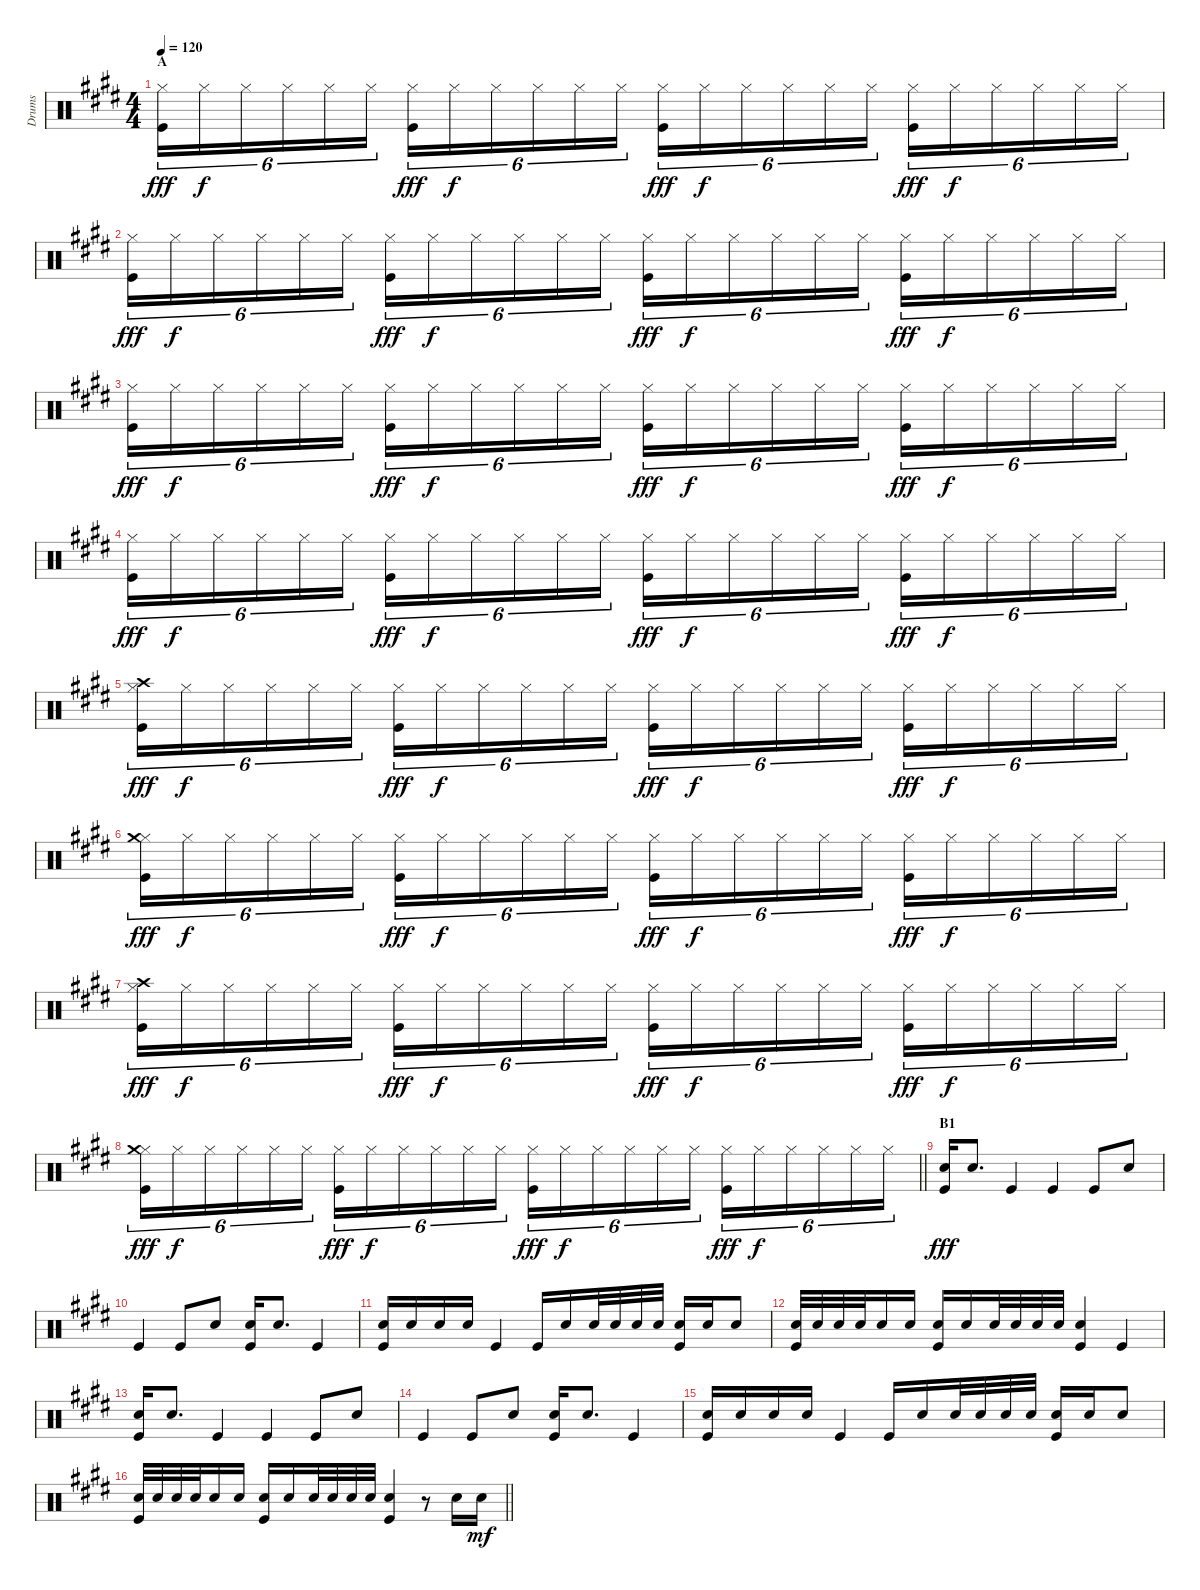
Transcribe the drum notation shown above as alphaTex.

\track ("Drums" "Drums") {instrument percussion}
\staff {score}
\articulation defaults
\ts (4 4)
\section ("" "A")
\tempo 120
\clef neutral
\ks e
("Hi-Hat (closed)" "Kick (hit)").16{tu (6 4) dy fff} "Hi-Hat (closed)".16{tu (6 4) dy f} "Hi-Hat (closed)".16{tu (6 4)} "Hi-Hat (closed)".16{tu (6 4)} "Hi-Hat (closed)".16{tu (6 4)} "Hi-Hat (closed)".16{tu (6 4)} ("Hi-Hat (closed)" "Kick (hit)").16{tu (6 4) dy fff} "Hi-Hat (closed)".16{tu (6 4) dy f} "Hi-Hat (closed)".16{tu (6 4)} "Hi-Hat (closed)".16{tu (6 4)} "Hi-Hat (closed)".16{tu (6 4)} "Hi-Hat (closed)".16{tu (6 4)} ("Hi-Hat (closed)" "Kick (hit)").16{tu (6 4) dy fff} "Hi-Hat (closed)".16{tu (6 4) dy f} "Hi-Hat (closed)".16{tu (6 4)} "Hi-Hat (closed)".16{tu (6 4)} "Hi-Hat (closed)".16{tu (6 4)} "Hi-Hat (closed)".16{tu (6 4)} ("Hi-Hat (closed)" "Kick (hit)").16{tu (6 4) dy fff} "Hi-Hat (closed)".16{tu (6 4) dy f} "Hi-Hat (closed)".16{tu (6 4)} "Hi-Hat (closed)".16{tu (6 4)} "Hi-Hat (closed)".16{tu (6 4)} "Hi-Hat (closed)".16{tu (6 4)} |
("Hi-Hat (closed)" "Kick (hit)").16{tu (6 4) dy fff} "Hi-Hat (closed)".16{tu (6 4) dy f} "Hi-Hat (closed)".16{tu (6 4)} "Hi-Hat (closed)".16{tu (6 4)} "Hi-Hat (closed)".16{tu (6 4)} "Hi-Hat (closed)".16{tu (6 4)} ("Hi-Hat (closed)" "Kick (hit)").16{tu (6 4) dy fff} "Hi-Hat (closed)".16{tu (6 4) dy f} "Hi-Hat (closed)".16{tu (6 4)} "Hi-Hat (closed)".16{tu (6 4)} "Hi-Hat (closed)".16{tu (6 4)} "Hi-Hat (closed)".16{tu (6 4)} ("Hi-Hat (closed)" "Kick (hit)").16{tu (6 4) dy fff} "Hi-Hat (closed)".16{tu (6 4) dy f} "Hi-Hat (closed)".16{tu (6 4)} "Hi-Hat (closed)".16{tu (6 4)} "Hi-Hat (closed)".16{tu (6 4)} "Hi-Hat (closed)".16{tu (6 4)} ("Hi-Hat (closed)" "Kick (hit)").16{tu (6 4) dy fff} "Hi-Hat (closed)".16{tu (6 4) dy f} "Hi-Hat (closed)".16{tu (6 4)} "Hi-Hat (closed)".16{tu (6 4)} "Hi-Hat (closed)".16{tu (6 4)} "Hi-Hat (closed)".16{tu (6 4)} |
("Hi-Hat (closed)" "Kick (hit)").16{tu (6 4) dy fff} "Hi-Hat (closed)".16{tu (6 4) dy f} "Hi-Hat (closed)".16{tu (6 4)} "Hi-Hat (closed)".16{tu (6 4)} "Hi-Hat (closed)".16{tu (6 4)} "Hi-Hat (closed)".16{tu (6 4)} ("Hi-Hat (closed)" "Kick (hit)").16{tu (6 4) dy fff} "Hi-Hat (closed)".16{tu (6 4) dy f} "Hi-Hat (closed)".16{tu (6 4)} "Hi-Hat (closed)".16{tu (6 4)} "Hi-Hat (closed)".16{tu (6 4)} "Hi-Hat (closed)".16{tu (6 4)} ("Hi-Hat (closed)" "Kick (hit)").16{tu (6 4) dy fff} "Hi-Hat (closed)".16{tu (6 4) dy f} "Hi-Hat (closed)".16{tu (6 4)} "Hi-Hat (closed)".16{tu (6 4)} "Hi-Hat (closed)".16{tu (6 4)} "Hi-Hat (closed)".16{tu (6 4)} ("Hi-Hat (closed)" "Kick (hit)").16{tu (6 4) dy fff} "Hi-Hat (closed)".16{tu (6 4) dy f} "Hi-Hat (closed)".16{tu (6 4)} "Hi-Hat (closed)".16{tu (6 4)} "Hi-Hat (closed)".16{tu (6 4)} "Hi-Hat (closed)".16{tu (6 4)} |
("Hi-Hat (closed)" "Kick (hit)").16{tu (6 4) dy fff} "Hi-Hat (closed)".16{tu (6 4) dy f} "Hi-Hat (closed)".16{tu (6 4)} "Hi-Hat (closed)".16{tu (6 4)} "Hi-Hat (closed)".16{tu (6 4)} "Hi-Hat (closed)".16{tu (6 4)} ("Hi-Hat (closed)" "Kick (hit)").16{tu (6 4) dy fff} "Hi-Hat (closed)".16{tu (6 4) dy f} "Hi-Hat (closed)".16{tu (6 4)} "Hi-Hat (closed)".16{tu (6 4)} "Hi-Hat (closed)".16{tu (6 4)} "Hi-Hat (closed)".16{tu (6 4)} ("Hi-Hat (closed)" "Kick (hit)").16{tu (6 4) dy fff} "Hi-Hat (closed)".16{tu (6 4) dy f} "Hi-Hat (closed)".16{tu (6 4)} "Hi-Hat (closed)".16{tu (6 4)} "Hi-Hat (closed)".16{tu (6 4)} "Hi-Hat (closed)".16{tu (6 4)} ("Hi-Hat (closed)" "Kick (hit)").16{tu (6 4) dy fff} "Hi-Hat (closed)".16{tu (6 4) dy f} "Hi-Hat (closed)".16{tu (6 4)} "Hi-Hat (closed)".16{tu (6 4)} "Hi-Hat (closed)".16{tu (6 4)} "Hi-Hat (closed)".16{tu (6 4)} |
("Hi-Hat (closed)" "Crash high (hit)" "Kick (hit)").16{tu (6 4) dy fff} "Hi-Hat (closed)".16{tu (6 4) dy f} "Hi-Hat (closed)".16{tu (6 4)} "Hi-Hat (closed)".16{tu (6 4)} "Hi-Hat (closed)".16{tu (6 4)} "Hi-Hat (closed)".16{tu (6 4)} ("Hi-Hat (closed)" "Kick (hit)").16{tu (6 4) dy fff} "Hi-Hat (closed)".16{tu (6 4) dy f} "Hi-Hat (closed)".16{tu (6 4)} "Hi-Hat (closed)".16{tu (6 4)} "Hi-Hat (closed)".16{tu (6 4)} "Hi-Hat (closed)".16{tu (6 4)} ("Hi-Hat (closed)" "Kick (hit)").16{tu (6 4) dy fff} "Hi-Hat (closed)".16{tu (6 4) dy f} "Hi-Hat (closed)".16{tu (6 4)} "Hi-Hat (closed)".16{tu (6 4)} "Hi-Hat (closed)".16{tu (6 4)} "Hi-Hat (closed)".16{tu (6 4)} ("Hi-Hat (closed)" "Kick (hit)").16{tu (6 4) dy fff} "Hi-Hat (closed)".16{tu (6 4) dy f} "Hi-Hat (closed)".16{tu (6 4)} "Hi-Hat (closed)".16{tu (6 4)} "Hi-Hat (closed)".16{tu (6 4)} "Hi-Hat (closed)".16{tu (6 4)} |
("Hi-Hat (closed)" "Crash medium (hit)" "Kick (hit)").16{tu (6 4) dy fff} "Hi-Hat (closed)".16{tu (6 4) dy f} "Hi-Hat (closed)".16{tu (6 4)} "Hi-Hat (closed)".16{tu (6 4)} "Hi-Hat (closed)".16{tu (6 4)} "Hi-Hat (closed)".16{tu (6 4)} ("Hi-Hat (closed)" "Kick (hit)").16{tu (6 4) dy fff} "Hi-Hat (closed)".16{tu (6 4) dy f} "Hi-Hat (closed)".16{tu (6 4)} "Hi-Hat (closed)".16{tu (6 4)} "Hi-Hat (closed)".16{tu (6 4)} "Hi-Hat (closed)".16{tu (6 4)} ("Hi-Hat (closed)" "Kick (hit)").16{tu (6 4) dy fff} "Hi-Hat (closed)".16{tu (6 4) dy f} "Hi-Hat (closed)".16{tu (6 4)} "Hi-Hat (closed)".16{tu (6 4)} "Hi-Hat (closed)".16{tu (6 4)} "Hi-Hat (closed)".16{tu (6 4)} ("Hi-Hat (closed)" "Kick (hit)").16{tu (6 4) dy fff} "Hi-Hat (closed)".16{tu (6 4) dy f} "Hi-Hat (closed)".16{tu (6 4)} "Hi-Hat (closed)".16{tu (6 4)} "Hi-Hat (closed)".16{tu (6 4)} "Hi-Hat (closed)".16{tu (6 4)} |
("Hi-Hat (closed)" "Crash high (hit)" "Kick (hit)").16{tu (6 4) dy fff} "Hi-Hat (closed)".16{tu (6 4) dy f} "Hi-Hat (closed)".16{tu (6 4)} "Hi-Hat (closed)".16{tu (6 4)} "Hi-Hat (closed)".16{tu (6 4)} "Hi-Hat (closed)".16{tu (6 4)} ("Hi-Hat (closed)" "Kick (hit)").16{tu (6 4) dy fff} "Hi-Hat (closed)".16{tu (6 4) dy f} "Hi-Hat (closed)".16{tu (6 4)} "Hi-Hat (closed)".16{tu (6 4)} "Hi-Hat (closed)".16{tu (6 4)} "Hi-Hat (closed)".16{tu (6 4)} ("Hi-Hat (closed)" "Kick (hit)").16{tu (6 4) dy fff} "Hi-Hat (closed)".16{tu (6 4) dy f} "Hi-Hat (closed)".16{tu (6 4)} "Hi-Hat (closed)".16{tu (6 4)} "Hi-Hat (closed)".16{tu (6 4)} "Hi-Hat (closed)".16{tu (6 4)} ("Hi-Hat (closed)" "Kick (hit)").16{tu (6 4) dy fff} "Hi-Hat (closed)".16{tu (6 4) dy f} "Hi-Hat (closed)".16{tu (6 4)} "Hi-Hat (closed)".16{tu (6 4)} "Hi-Hat (closed)".16{tu (6 4)} "Hi-Hat (closed)".16{tu (6 4)} |
\barLineRight lightlight
("Hi-Hat (closed)" "Crash medium (hit)" "Kick (hit)").16{tu (6 4) dy fff} "Hi-Hat (closed)".16{tu (6 4) dy f} "Hi-Hat (closed)".16{tu (6 4)} "Hi-Hat (closed)".16{tu (6 4)} "Hi-Hat (closed)".16{tu (6 4)} "Hi-Hat (closed)".16{tu (6 4)} ("Hi-Hat (closed)" "Kick (hit)").16{tu (6 4) dy fff} "Hi-Hat (closed)".16{tu (6 4) dy f} "Hi-Hat (closed)".16{tu (6 4)} "Hi-Hat (closed)".16{tu (6 4)} "Hi-Hat (closed)".16{tu (6 4)} "Hi-Hat (closed)".16{tu (6 4)} ("Hi-Hat (closed)" "Kick (hit)").16{tu (6 4) dy fff} "Hi-Hat (closed)".16{tu (6 4) dy f} "Hi-Hat (closed)".16{tu (6 4)} "Hi-Hat (closed)".16{tu (6 4)} "Hi-Hat (closed)".16{tu (6 4)} "Hi-Hat (closed)".16{tu (6 4)} ("Hi-Hat (closed)" "Kick (hit)").16{tu (6 4) dy fff} "Hi-Hat (closed)".16{tu (6 4) dy f} "Hi-Hat (closed)".16{tu (6 4)} "Hi-Hat (closed)".16{tu (6 4)} "Hi-Hat (closed)".16{tu (6 4)} "Hi-Hat (closed)".16{tu (6 4)} |
\section ("" "B1")
("Snare (hit) 2" "Kick (hit)").16{dy fff} "Snare (hit) 2".8{d} "Kick (hit)".4 "Kick (hit)".4 "Kick (hit)".8 "Snare (hit) 2".8 |
"Kick (hit)".4 "Kick (hit)".8 "Snare (hit) 2".8 ("Snare (hit) 2" "Kick (hit)").16 "Snare (hit) 2".8{d} "Kick (hit)".4 |
("Snare (hit) 2" "Kick (hit)").16 "Snare (hit) 2".16 "Snare (hit) 2".16 "Snare (hit) 2".16 "Kick (hit)".4 "Kick (hit)".16 "Snare (hit) 2".16 "Snare (hit) 2".32 "Snare (hit) 2".32 "Snare (hit) 2".32 "Snare (hit) 2".32 ("Snare (hit) 2" "Kick (hit)").16 "Snare (hit) 2".16 "Snare (hit) 2".8 |
("Snare (hit) 2" "Kick (hit)").32 "Snare (hit) 2".32 "Snare (hit) 2".32 "Snare (hit) 2".32 "Snare (hit) 2".16 "Snare (hit) 2".16 ("Snare (hit) 2" "Kick (hit)").16 "Snare (hit) 2".16 "Snare (hit) 2".32 "Snare (hit) 2".32 "Snare (hit) 2".32 "Snare (hit) 2".32 ("Snare (hit) 2" "Kick (hit)").4 "Kick (hit)".4 |
("Snare (hit) 2" "Kick (hit)").16 "Snare (hit) 2".8{d} "Kick (hit)".4 "Kick (hit)".4 "Kick (hit)".8 "Snare (hit) 2".8 |
"Kick (hit)".4 "Kick (hit)".8 "Snare (hit) 2".8 ("Snare (hit) 2" "Kick (hit)").16 "Snare (hit) 2".8{d} "Kick (hit)".4 |
("Snare (hit) 2" "Kick (hit)").16 "Snare (hit) 2".16 "Snare (hit) 2".16 "Snare (hit) 2".16 "Kick (hit)".4 "Kick (hit)".16 "Snare (hit) 2".16 "Snare (hit) 2".32 "Snare (hit) 2".32 "Snare (hit) 2".32 "Snare (hit) 2".32 ("Snare (hit) 2" "Kick (hit)").16 "Snare (hit) 2".16 "Snare (hit) 2".8 |
\barLineRight lightlight
("Snare (hit) 2" "Kick (hit)").32 "Snare (hit) 2".32 "Snare (hit) 2".32 "Snare (hit) 2".32 "Snare (hit) 2".16 "Snare (hit) 2".16 ("Snare (hit) 2" "Kick (hit)").16 "Snare (hit) 2".16 "Snare (hit) 2".32 "Snare (hit) 2".32 "Snare (hit) 2".32 "Snare (hit) 2".32 ("Snare (hit) 2" "Kick (hit)").4 r.8 "Snare (hit) 2".16 "Snare (hit) 2".16{dy mf}
